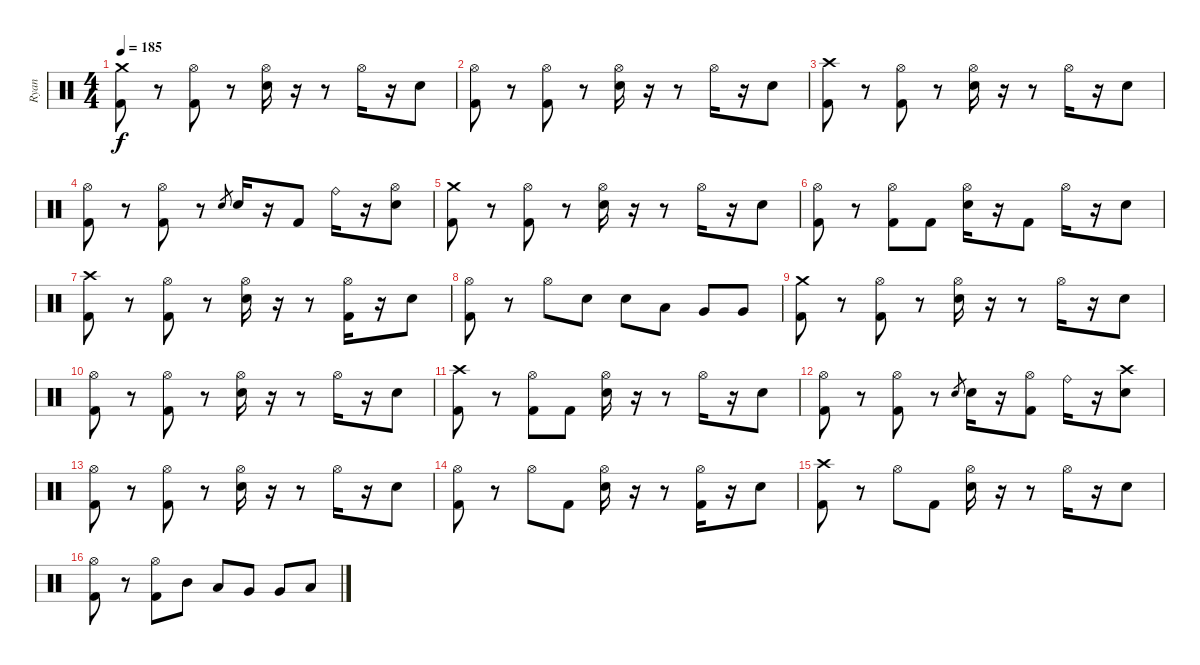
\track ("Ryan" "Ryan") {instrument percussion}
\staff {score}
\articulation defaults
\ts (4 4)
\tempo 185
\clef neutral
\ks c
("Crash medium (hit)" "Kick (hit) 2").8{dy f} r.8 ("Hi-Hat (open)" "Kick (hit) 2").8 r.8 ("Hi-Hat (open)" "Electric Snare (hit)").16 r.16 r.8 "Hi-Hat (open)".16 r.16 "Electric Snare (hit)".8 |
("Hi-Hat (open)" "Kick (hit) 2").8 r.8 ("Hi-Hat (open)" "Kick (hit) 2").8 r.8 ("Hi-Hat (open)" "Electric Snare (hit)").16 r.16 r.8 "Hi-Hat (open)".16 r.16 "Electric Snare (hit)".8 |
("Crash high (hit)" "Kick (hit) 2").8 r.8 ("Hi-Hat (open)" "Kick (hit) 2").8 r.8 ("Hi-Hat (open)" "Electric Snare (hit)").16 r.16 r.8 "Hi-Hat (open)".16 r.16 "Electric Snare (hit)".8 |
("Hi-Hat (open)" "Kick (hit) 2").8 r.8 ("Hi-Hat (open)" "Kick (hit) 2").8 r.8 "Electric Snare (hit)".8{gr} "Electric Snare (hit)".16 r.16 "Kick (hit) 2".8 "Ride (bell)".16 r.16 ("Hi-Hat (open)" "Electric Snare (hit)").8 |
("Crash medium (hit)" "Kick (hit) 2").8 r.8 ("Hi-Hat (open)" "Kick (hit) 2").8 r.8 ("Hi-Hat (open)" "Electric Snare (hit)").16 r.16 r.8 "Hi-Hat (open)".16 r.16 "Electric Snare (hit)".8 |
("Hi-Hat (open)" "Kick (hit) 2").8 r.8 ("Hi-Hat (open)" "Kick (hit) 2").8 "Kick (hit) 2".8 ("Hi-Hat (open)" "Electric Snare (hit)").16 r.16 "Kick (hit) 2".8 "Hi-Hat (open)".16 r.16 "Electric Snare (hit)".8 |
("Crash high (hit)" "Kick (hit) 2").8 r.8 ("Hi-Hat (open)" "Kick (hit) 2").8 r.8 ("Hi-Hat (open)" "Electric Snare (hit)").16 r.16 r.8 ("Hi-Hat (open)" "Kick (hit) 2").16 r.16 "Electric Snare (hit)".8 |
("Hi-Hat (open)" "Kick (hit) 2").8 r.8 "Hi-Hat (open)".8 "Electric Snare (hit)".8 "Electric Snare (hit)".8 "Low Tom (hit)".8 "Very Low Tom (hit)".8 "Very Low Tom (hit)".8 |
("Crash medium (hit)" "Kick (hit) 2").8 r.8 ("Hi-Hat (open)" "Kick (hit) 2").8 r.8 ("Hi-Hat (open)" "Electric Snare (hit)").16 r.16 r.8 "Hi-Hat (open)".16 r.16 "Electric Snare (hit)".8 |
("Hi-Hat (open)" "Kick (hit) 2").8 r.8 ("Hi-Hat (open)" "Kick (hit) 2").8 r.8 ("Hi-Hat (open)" "Electric Snare (hit)").16 r.16 r.8 "Hi-Hat (open)".16 r.16 "Electric Snare (hit)".8 |
("Crash high (hit)" "Kick (hit) 2").8 r.8 ("Hi-Hat (open)" "Kick (hit) 2").8 "Kick (hit) 2".8 ("Hi-Hat (open)" "Electric Snare (hit)").16 r.16 r.8 "Hi-Hat (open)".16 r.16 "Electric Snare (hit)".8 |
("Hi-Hat (open)" "Kick (hit) 2").8 r.8 ("Hi-Hat (open)" "Kick (hit) 2").8 r.8 "Electric Snare (hit)".8{gr} "Electric Snare (hit)".16 r.16 ("Hi-Hat (open)" "Kick (hit) 2").8 "Ride (bell)".16 r.16 ("Crash high (hit)" "Electric Snare (hit)").8 |
("Hi-Hat (open)" "Kick (hit) 2").8 r.8 ("Hi-Hat (open)" "Kick (hit) 2").8 r.8 ("Hi-Hat (open)" "Electric Snare (hit)").16 r.16 r.8 "Hi-Hat (open)".16 r.16 "Electric Snare (hit)".8 |
("Hi-Hat (open)" "Kick (hit) 2").8 r.8 "Hi-Hat (open)".8 "Kick (hit) 2".8 ("Hi-Hat (open)" "Electric Snare (hit)").16 r.16 r.8 ("Hi-Hat (open)" "Kick (hit) 2").16 r.16 "Electric Snare (hit)".8 |
("Crash high (hit)" "Kick (hit) 2").8 r.8 "Hi-Hat (open)".8 "Kick (hit) 2".8 ("Hi-Hat (open)" "Electric Snare (hit)").16 r.16 r.8 "Hi-Hat (open)".16 r.16 "Electric Snare (hit)".8 |
("Hi-Hat (open)" "Kick (hit) 2").8 r.8 ("Hi-Hat (open)" "Kick (hit) 2").8 "Mid Tom (hit)".8 "Low Tom (hit)".8 "Very Low Tom (hit)".8 "Very Low Tom (hit)".8 "Low Floor Tom (hit)".8
